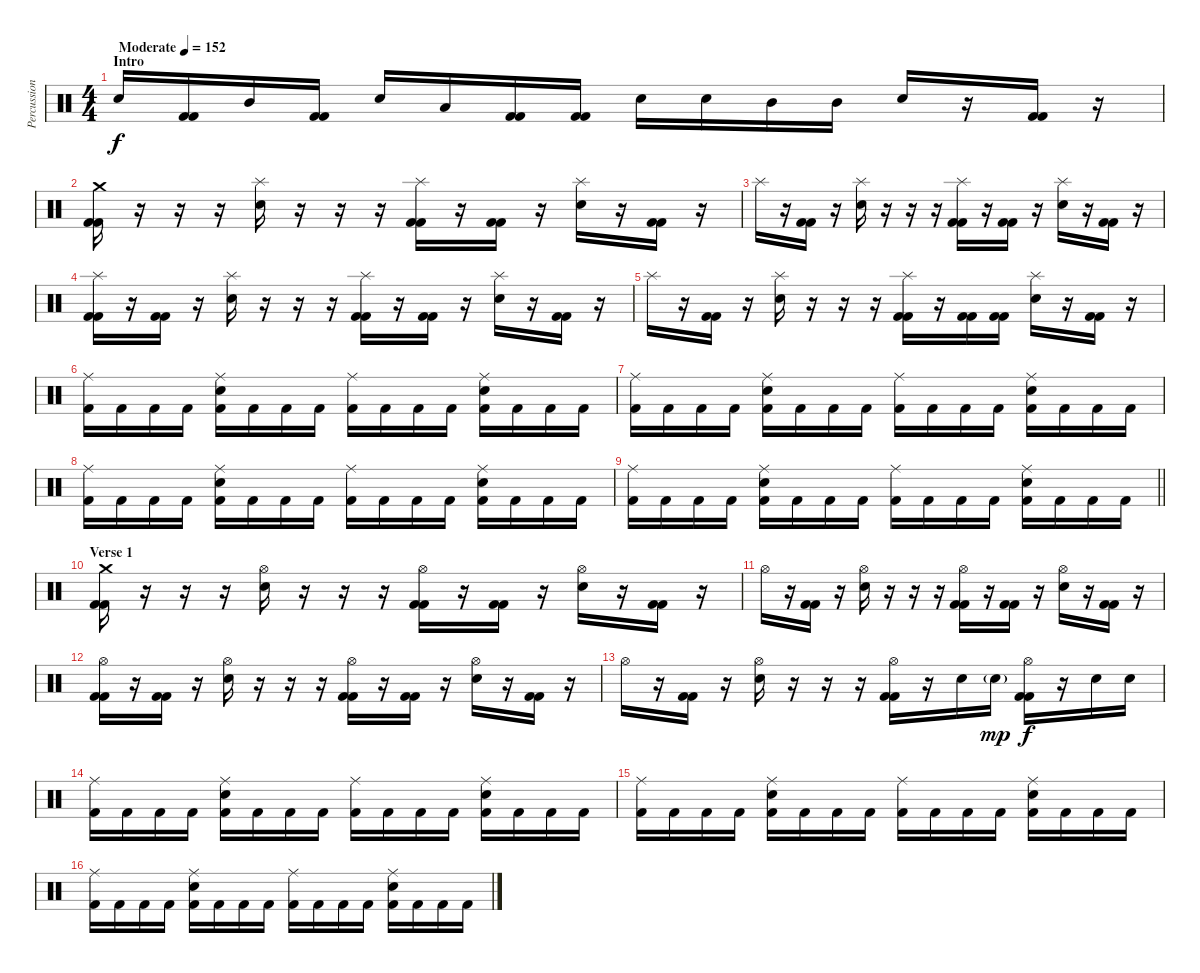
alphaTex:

\track ("Percussion" "Percussion") {instrument percussion}
\staff {score}
\articulation defaults
\ts (4 4)
\section ("" "Intro")
\tempo (152 "Moderate")
\clef neutral
\ks c "Snare (hit) 2".16{dy f}
("Kick (hit) 2" "Kick (hit) 2").16 "Mid Tom (hit)".16 ("Kick (hit) 2" "Kick (hit) 2").16 "Snare (hit) 2".16 "Low Tom (hit)".16 ("Kick (hit) 2" "Kick (hit) 2").16 ("Kick (hit) 2" "Kick (hit) 2").16 "Snare (hit) 2".16 "Snare (hit) 2".16 "Mid Tom (hit)".16 "Mid Tom (hit)".16 "Snare (hit) 2".16 r.16 ("Kick (hit) 2" "Kick (hit) 2").16 r.16 |
("Crash medium (hit)" "Kick (hit) 2" "Kick (hit) 2").16 r.16 r.16 r.16 ("Splash (hit)" "Snare (hit) 2").16 r.16 r.16 r.16 ("Splash (hit)" "Kick (hit) 2" "Kick (hit) 2").16 r.16 ("Kick (hit) 2" "Kick (hit) 2").16 r.16 ("Splash (hit)" "Snare (hit) 2").16 r.16 ("Kick (hit) 2" "Kick (hit) 2").16 r.16 |
"Splash (hit)".16 r.16 ("Kick (hit) 2" "Kick (hit) 2").16 r.16 ("Splash (hit)" "Snare (hit) 2").16 r.16 r.16 r.16 ("Splash (hit)" "Kick (hit) 2" "Kick (hit) 2").16 r.16 ("Kick (hit) 2" "Kick (hit) 2").16 r.16 ("Splash (hit)" "Snare (hit) 2").16 r.16 ("Kick (hit) 2" "Kick (hit) 2").16 r.16 |
("Splash (hit)" "Kick (hit) 2" "Kick (hit) 2").16 r.16 ("Kick (hit) 2" "Kick (hit) 2").16 r.16 ("Splash (hit)" "Snare (hit) 2").16 r.16 r.16 r.16 ("Splash (hit)" "Kick (hit) 2" "Kick (hit) 2").16 r.16 ("Kick (hit) 2" "Kick (hit) 2").16 r.16 ("Splash (hit)" "Snare (hit) 2").16 r.16 ("Kick (hit) 2" "Kick (hit) 2").16 r.16 |
"Splash (hit)".16 r.16 ("Kick (hit) 2" "Kick (hit) 2").16 r.16 ("Splash (hit)" "Snare (hit) 2").16 r.16 r.16 r.16 ("Splash (hit)" "Kick (hit) 2" "Kick (hit) 2").16 r.16 ("Kick (hit) 2" "Kick (hit) 2").16 ("Kick (hit) 2" "Kick (hit) 2").16 ("Splash (hit)" "Snare (hit) 2").16 r.16 ("Kick (hit) 2" "Kick (hit) 2").16 r.16 |
("Ride (middle)" "Kick (hit) 2").16 "Kick (hit) 2".16 "Kick (hit) 2".16 "Kick (hit) 2".16 ("Ride (middle)" "Snare (hit) 2" "Kick (hit) 2").16 "Kick (hit) 2".16 "Kick (hit) 2".16 "Kick (hit) 2".16 ("Ride (middle)" "Kick (hit) 2").16 "Kick (hit) 2".16 "Kick (hit) 2".16 "Kick (hit) 2".16 ("Ride (middle)" "Snare (hit) 2" "Kick (hit) 2").16 "Kick (hit) 2".16 "Kick (hit) 2".16 "Kick (hit) 2".16 |
("Ride (middle)" "Kick (hit) 2").16 "Kick (hit) 2".16 "Kick (hit) 2".16 "Kick (hit) 2".16 ("Ride (middle)" "Snare (hit) 2" "Kick (hit) 2").16 "Kick (hit) 2".16 "Kick (hit) 2".16 "Kick (hit) 2".16 ("Ride (middle)" "Kick (hit) 2").16 "Kick (hit) 2".16 "Kick (hit) 2".16 "Kick (hit) 2".16 ("Ride (middle)" "Snare (hit) 2" "Kick (hit) 2").16 "Kick (hit) 2".16 "Kick (hit) 2".16 "Kick (hit) 2".16 |
("Ride (middle)" "Kick (hit) 2").16 "Kick (hit) 2".16 "Kick (hit) 2".16 "Kick (hit) 2".16 ("Ride (middle)" "Snare (hit) 2" "Kick (hit) 2").16 "Kick (hit) 2".16 "Kick (hit) 2".16 "Kick (hit) 2".16 ("Ride (middle)" "Kick (hit) 2").16 "Kick (hit) 2".16 "Kick (hit) 2".16 "Kick (hit) 2".16 ("Ride (middle)" "Snare (hit) 2" "Kick (hit) 2").16 "Kick (hit) 2".16 "Kick (hit) 2".16 "Kick (hit) 2".16 |
\barLineRight lightlight
("Ride (middle)" "Kick (hit) 2").16 "Kick (hit) 2".16 "Kick (hit) 2".16 "Kick (hit) 2".16 ("Ride (middle)" "Snare (hit) 2" "Kick (hit) 2").16 "Kick (hit) 2".16 "Kick (hit) 2".16 "Kick (hit) 2".16 ("Ride (middle)" "Kick (hit) 2").16 "Kick (hit) 2".16 "Kick (hit) 2".16 "Kick (hit) 2".16 ("Ride (middle)" "Snare (hit) 2" "Kick (hit) 2").16 "Kick (hit) 2".16 "Kick (hit) 2".16 "Kick (hit) 2".16 |
\section ("" "Verse 1")
("Crash medium (hit)" "Kick (hit) 2" "Kick (hit) 2").16 r.16 r.16 r.16 ("Hi-Hat (open)" "Snare (hit) 2").16 r.16 r.16 r.16 ("Hi-Hat (open)" "Kick (hit) 2" "Kick (hit) 2").16 r.16 ("Kick (hit) 2" "Kick (hit) 2").16 r.16 ("Hi-Hat (open)" "Snare (hit) 2").16 r.16 ("Kick (hit) 2" "Kick (hit) 2").16 r.16 |
"Hi-Hat (open)".16 r.16 ("Kick (hit) 2" "Kick (hit) 2").16 r.16 ("Hi-Hat (open)" "Snare (hit) 2").16 r.16 r.16 r.16 ("Hi-Hat (open)" "Kick (hit) 2" "Kick (hit) 2").16 r.16 ("Kick (hit) 2" "Kick (hit) 2").16 r.16 ("Hi-Hat (open)" "Snare (hit) 2").16 r.16 ("Kick (hit) 2" "Kick (hit) 2").16 r.16 |
("Hi-Hat (open)" "Kick (hit) 2" "Kick (hit) 2").16 r.16 ("Kick (hit) 2" "Kick (hit) 2").16 r.16 ("Hi-Hat (open)" "Snare (hit) 2").16 r.16 r.16 r.16 ("Hi-Hat (open)" "Kick (hit) 2" "Kick (hit) 2").16 r.16 ("Kick (hit) 2" "Kick (hit) 2").16 r.16 ("Hi-Hat (open)" "Snare (hit) 2").16 r.16 ("Kick (hit) 2" "Kick (hit) 2").16 r.16 |
"Hi-Hat (open)".16 r.16 ("Kick (hit) 2" "Kick (hit) 2").16 r.16 ("Hi-Hat (open)" "Snare (hit) 2").16 r.16 r.16 r.16 ("Hi-Hat (open)" "Kick (hit) 2" "Kick (hit) 2").16 r.16 "Snare (hit) 2".16 "Snare (hit) 2"{g}.16{dy mp} ("Hi-Hat (open)" "Kick (hit) 2" "Kick (hit) 2").16{dy f} r.16 "Snare (hit) 2".16 "Snare (hit) 2".16 |
("Ride (middle)" "Kick (hit) 2").16 "Kick (hit) 2".16 "Kick (hit) 2".16 "Kick (hit) 2".16 ("Ride (middle)" "Snare (hit) 2" "Kick (hit) 2").16 "Kick (hit) 2".16 "Kick (hit) 2".16 "Kick (hit) 2".16 ("Ride (middle)" "Kick (hit) 2").16 "Kick (hit) 2".16 "Kick (hit) 2".16 "Kick (hit) 2".16 ("Ride (middle)" "Snare (hit) 2" "Kick (hit) 2").16 "Kick (hit) 2".16 "Kick (hit) 2".16 "Kick (hit) 2".16 |
("Ride (middle)" "Kick (hit) 2").16 "Kick (hit) 2".16 "Kick (hit) 2".16 "Kick (hit) 2".16 ("Ride (middle)" "Snare (hit) 2" "Kick (hit) 2").16 "Kick (hit) 2".16 "Kick (hit) 2".16 "Kick (hit) 2".16 ("Ride (middle)" "Kick (hit) 2").16 "Kick (hit) 2".16 "Kick (hit) 2".16 "Kick (hit) 2".16 ("Ride (middle)" "Snare (hit) 2" "Kick (hit) 2").16 "Kick (hit) 2".16 "Kick (hit) 2".16 "Kick (hit) 2".16 |
("Ride (middle)" "Kick (hit) 2").16 "Kick (hit) 2".16 "Kick (hit) 2".16 "Kick (hit) 2".16 ("Ride (middle)" "Snare (hit) 2" "Kick (hit) 2").16 "Kick (hit) 2".16 "Kick (hit) 2".16 "Kick (hit) 2".16 ("Ride (middle)" "Kick (hit) 2").16 "Kick (hit) 2".16 "Kick (hit) 2".16 "Kick (hit) 2".16 ("Ride (middle)" "Snare (hit) 2" "Kick (hit) 2").16 "Kick (hit) 2".16 "Kick (hit) 2".16 "Kick (hit) 2".16
